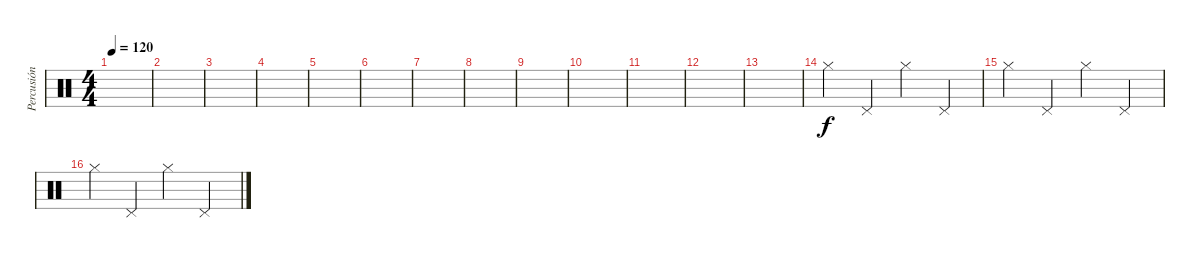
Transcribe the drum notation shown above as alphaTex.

\track ("Percusión" "Percusión") {instrument percussion}
\staff {score}
\articulation defaults
\ts (4 4)
\tempo 120
\clef neutral
\ks c
|
|
|
|
|
|
|
|
|
|
|
|
|
"Hi-Hat (closed)".4 "Pedal Hi-Hat (hit)".4 "Hi-Hat (closed)".4 "Pedal Hi-Hat (hit)".4 |
"Hi-Hat (closed)".4 "Pedal Hi-Hat (hit)".4 "Hi-Hat (closed)".4 "Pedal Hi-Hat (hit)".4 |
"Hi-Hat (closed)".4 "Pedal Hi-Hat (hit)".4 "Hi-Hat (closed)".4 "Pedal Hi-Hat (hit)".4
